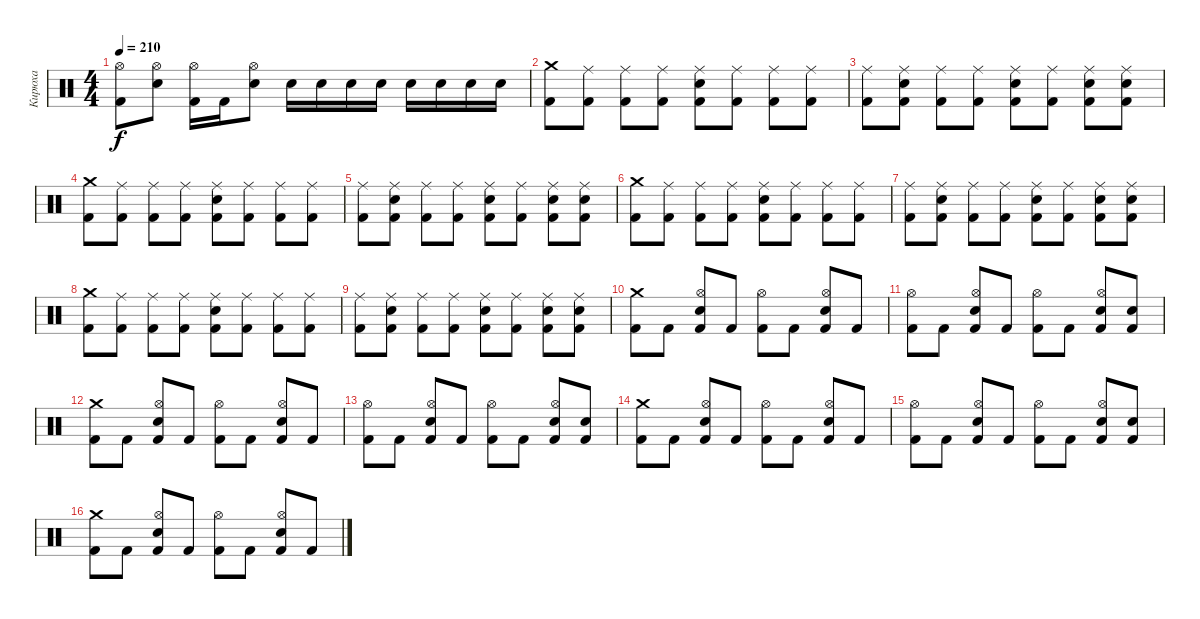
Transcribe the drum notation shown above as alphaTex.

\track ("Кирюха" "Кирюха") {instrument percussion}
\staff {score}
\articulation defaults
\ts (4 4)
\tempo 210
\clef neutral
\ks c
("Kick (hit) 2" "Hi-Hat (open)").8{dy f} ("Electric Snare (hit)" "Hi-Hat (open)").8 ("Kick (hit) 2" "Hi-Hat (open)").16 "Kick (hit) 2".16 ("Electric Snare (hit)" "Hi-Hat (open)").8 "Electric Snare (hit)".16 "Electric Snare (hit)".16 "Electric Snare (hit)".16 "Electric Snare (hit)".16 "Electric Snare (hit)".16 "Electric Snare (hit)".16 "Electric Snare (hit)".16 "Electric Snare (hit)".16 |
("Kick (hit) 2" "Crash medium (hit)").8 ("Kick (hit) 2" "Ride (middle)").8 ("Kick (hit) 2" "Ride (middle)").8 ("Kick (hit) 2" "Ride (middle)").8 ("Kick (hit) 2" "Electric Snare (hit)" "Ride (middle)").8 ("Kick (hit) 2" "Ride (middle)").8 ("Kick (hit) 2" "Ride (middle)").8 ("Kick (hit) 2" "Ride (middle)").8 |
("Kick (hit) 2" "Ride (middle)").8 ("Kick (hit) 2" "Electric Snare (hit)" "Ride (middle)").8 ("Kick (hit) 2" "Ride (middle)").8 ("Kick (hit) 2" "Ride (middle)").8 ("Kick (hit) 2" "Electric Snare (hit)" "Ride (middle)").8 ("Kick (hit) 2" "Ride (middle)").8 ("Kick (hit) 2" "Electric Snare (hit)" "Ride (middle)").8 ("Kick (hit) 2" "Electric Snare (hit)" "Ride (middle)").8 |
("Kick (hit) 2" "Crash medium (hit)").8 ("Kick (hit) 2" "Ride (middle)").8 ("Kick (hit) 2" "Ride (middle)").8 ("Kick (hit) 2" "Ride (middle)").8 ("Kick (hit) 2" "Electric Snare (hit)" "Ride (middle)").8 ("Kick (hit) 2" "Ride (middle)").8 ("Kick (hit) 2" "Ride (middle)").8 ("Kick (hit) 2" "Ride (middle)").8 |
("Kick (hit) 2" "Ride (middle)").8 ("Kick (hit) 2" "Electric Snare (hit)" "Ride (middle)").8 ("Kick (hit) 2" "Ride (middle)").8 ("Kick (hit) 2" "Ride (middle)").8 ("Kick (hit) 2" "Electric Snare (hit)" "Ride (middle)").8 ("Kick (hit) 2" "Ride (middle)").8 ("Kick (hit) 2" "Electric Snare (hit)" "Ride (middle)").8 ("Kick (hit) 2" "Electric Snare (hit)" "Ride (middle)").8 |
("Kick (hit) 2" "Crash medium (hit)").8 ("Kick (hit) 2" "Ride (middle)").8 ("Kick (hit) 2" "Ride (middle)").8 ("Kick (hit) 2" "Ride (middle)").8 ("Kick (hit) 2" "Electric Snare (hit)" "Ride (middle)").8 ("Kick (hit) 2" "Ride (middle)").8 ("Kick (hit) 2" "Ride (middle)").8 ("Kick (hit) 2" "Ride (middle)").8 |
("Kick (hit) 2" "Ride (middle)").8 ("Kick (hit) 2" "Electric Snare (hit)" "Ride (middle)").8 ("Kick (hit) 2" "Ride (middle)").8 ("Kick (hit) 2" "Ride (middle)").8 ("Kick (hit) 2" "Electric Snare (hit)" "Ride (middle)").8 ("Kick (hit) 2" "Ride (middle)").8 ("Kick (hit) 2" "Electric Snare (hit)" "Ride (middle)").8 ("Kick (hit) 2" "Electric Snare (hit)" "Ride (middle)").8 |
("Kick (hit) 2" "Crash medium (hit)").8 ("Kick (hit) 2" "Ride (middle)").8 ("Kick (hit) 2" "Ride (middle)").8 ("Kick (hit) 2" "Ride (middle)").8 ("Kick (hit) 2" "Electric Snare (hit)" "Ride (middle)").8 ("Kick (hit) 2" "Ride (middle)").8 ("Kick (hit) 2" "Ride (middle)").8 ("Kick (hit) 2" "Ride (middle)").8 |
("Kick (hit) 2" "Ride (middle)").8 ("Kick (hit) 2" "Electric Snare (hit)" "Ride (middle)").8 ("Kick (hit) 2" "Ride (middle)").8 ("Kick (hit) 2" "Ride (middle)").8 ("Kick (hit) 2" "Electric Snare (hit)" "Ride (middle)").8 ("Kick (hit) 2" "Ride (middle)").8 ("Kick (hit) 2" "Electric Snare (hit)" "Ride (middle)").8 ("Kick (hit) 2" "Electric Snare (hit)" "Ride (middle)").8 |
("Kick (hit) 2" "Crash medium (hit)").8 "Kick (hit) 2".8 ("Kick (hit) 2" "Electric Snare (hit)" "Hi-Hat (open)").8 "Kick (hit) 2".8 ("Kick (hit) 2" "Hi-Hat (open)").8 "Kick (hit) 2".8 ("Kick (hit) 2" "Electric Snare (hit)" "Hi-Hat (open)").8 "Kick (hit) 2".8 |
("Kick (hit) 2" "Hi-Hat (open)").8 "Kick (hit) 2".8 ("Kick (hit) 2" "Electric Snare (hit)" "Hi-Hat (open)").8 "Kick (hit) 2".8 ("Kick (hit) 2" "Hi-Hat (open)").8 "Kick (hit) 2".8 ("Kick (hit) 2" "Electric Snare (hit)" "Hi-Hat (open)").8 ("Kick (hit) 2" "Electric Snare (hit)").8 |
("Kick (hit) 2" "Crash medium (hit)").8 "Kick (hit) 2".8 ("Kick (hit) 2" "Electric Snare (hit)" "Hi-Hat (open)").8 "Kick (hit) 2".8 ("Kick (hit) 2" "Hi-Hat (open)").8 "Kick (hit) 2".8 ("Kick (hit) 2" "Electric Snare (hit)" "Hi-Hat (open)").8 "Kick (hit) 2".8 |
("Kick (hit) 2" "Hi-Hat (open)").8 "Kick (hit) 2".8 ("Kick (hit) 2" "Electric Snare (hit)" "Hi-Hat (open)").8 "Kick (hit) 2".8 ("Kick (hit) 2" "Hi-Hat (open)").8 "Kick (hit) 2".8 ("Kick (hit) 2" "Electric Snare (hit)" "Hi-Hat (open)").8 ("Kick (hit) 2" "Electric Snare (hit)").8 |
("Kick (hit) 2" "Crash medium (hit)").8 "Kick (hit) 2".8 ("Kick (hit) 2" "Electric Snare (hit)" "Hi-Hat (open)").8 "Kick (hit) 2".8 ("Kick (hit) 2" "Hi-Hat (open)").8 "Kick (hit) 2".8 ("Kick (hit) 2" "Electric Snare (hit)" "Hi-Hat (open)").8 "Kick (hit) 2".8 |
("Kick (hit) 2" "Hi-Hat (open)").8 "Kick (hit) 2".8 ("Kick (hit) 2" "Electric Snare (hit)" "Hi-Hat (open)").8 "Kick (hit) 2".8 ("Kick (hit) 2" "Hi-Hat (open)").8 "Kick (hit) 2".8 ("Kick (hit) 2" "Electric Snare (hit)" "Hi-Hat (open)").8 ("Kick (hit) 2" "Electric Snare (hit)").8 |
("Kick (hit) 2" "Crash medium (hit)").8 "Kick (hit) 2".8 ("Kick (hit) 2" "Electric Snare (hit)" "Hi-Hat (open)").8 "Kick (hit) 2".8 ("Kick (hit) 2" "Hi-Hat (open)").8 "Kick (hit) 2".8 ("Kick (hit) 2" "Electric Snare (hit)" "Hi-Hat (open)").8 "Kick (hit) 2".8
